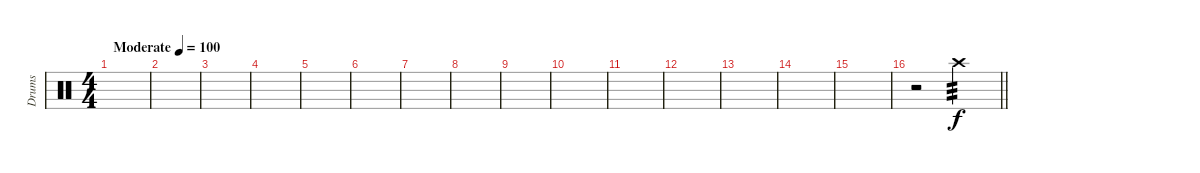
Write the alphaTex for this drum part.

\track ("Drums" "Drums") {instrument percussion}
\staff {score}
\articulation defaults
\ts (4 4)
\tempo (100 "Moderate")
\clef neutral
\ks c
|
|
|
|
|
|
|
|
|
|
|
|
|
|
|
\barLineRight lightlight
r.2{volume 0} "Crash high (hit)".2{tp 3 volume 14}
